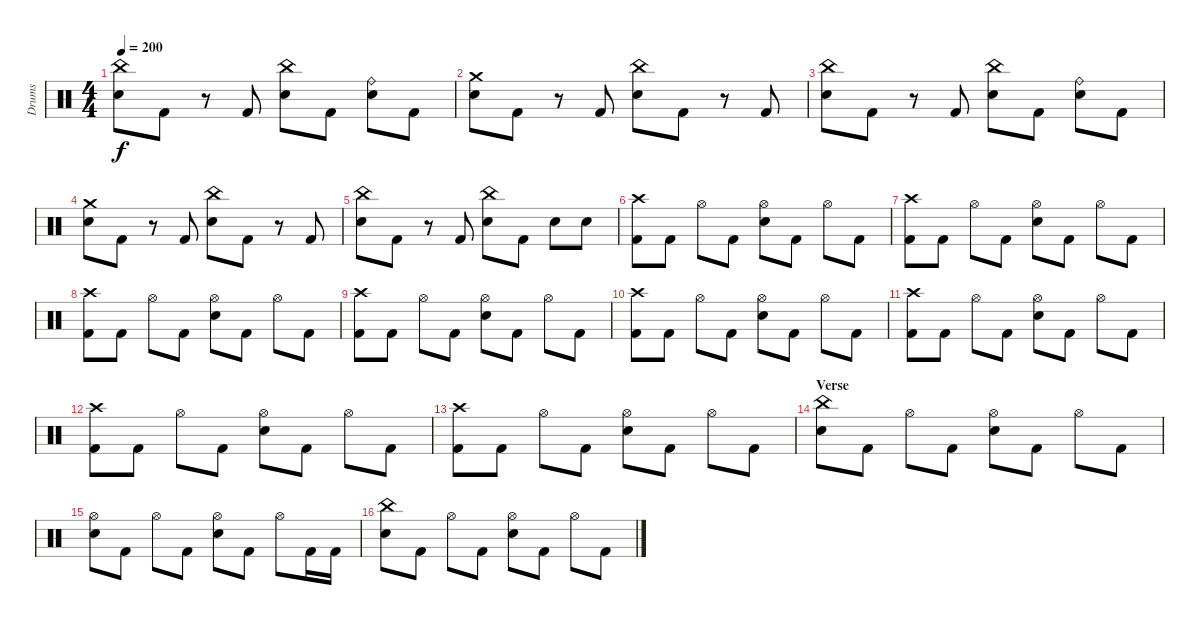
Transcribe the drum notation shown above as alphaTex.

\track ("Drums" "Drums") {instrument percussion}
\staff {score}
\articulation defaults
\ts (4 4)
\tempo 200
\clef neutral
\ks c
("China (hit)" "Electric Snare (hit)").8{dy f} "Kick (hit) 2".8 r.8 "Kick (hit) 2".8 ("China (hit)" "Electric Snare (hit)").8 "Kick (hit) 2".8 ("Ride (bell)" "Electric Snare (hit)").8 "Kick (hit) 2".8 |
("Crash medium (hit)" "Electric Snare (hit)").8 "Kick (hit) 2".8 r.8 "Kick (hit) 2".8 ("China (hit)" "Electric Snare (hit)").8 "Kick (hit) 2".8 r.8 "Kick (hit) 2".8 |
("China (hit)" "Electric Snare (hit)").8 "Kick (hit) 2".8 r.8 "Kick (hit) 2".8 ("China (hit)" "Electric Snare (hit)").8 "Kick (hit) 2".8 ("Ride (bell)" "Electric Snare (hit)").8 "Kick (hit) 2".8 |
("Crash medium (hit)" "Electric Snare (hit)").8 "Kick (hit) 2".8 r.8 "Kick (hit) 2".8 ("China (hit)" "Electric Snare (hit)").8 "Kick (hit) 2".8 r.8 "Kick (hit) 2".8 |
("China (hit)" "Electric Snare (hit)").8 "Kick (hit) 2".8 r.8 "Kick (hit) 2".8 ("China (hit)" "Electric Snare (hit)").8 "Kick (hit) 2".8 "Electric Snare (hit)".8 "Electric Snare (hit)".8 |
("Crash high (hit)" "Kick (hit) 2").8 "Kick (hit) 2".8 "Hi-Hat (open)".8 "Kick (hit) 2".8 ("Hi-Hat (open)" "Electric Snare (hit)").8 "Kick (hit) 2".8 "Hi-Hat (open)".8 "Kick (hit) 2".8 |
("Crash high (hit)" "Kick (hit) 2").8 "Kick (hit) 2".8 "Hi-Hat (open)".8 "Kick (hit) 2".8 ("Hi-Hat (open)" "Electric Snare (hit)").8 "Kick (hit) 2".8 "Hi-Hat (open)".8 "Kick (hit) 2".8 |
("Crash high (hit)" "Kick (hit) 2").8 "Kick (hit) 2".8 "Hi-Hat (open)".8 "Kick (hit) 2".8 ("Hi-Hat (open)" "Electric Snare (hit)").8 "Kick (hit) 2".8 "Hi-Hat (open)".8 "Kick (hit) 2".8 |
("Crash high (hit)" "Kick (hit) 2").8 "Kick (hit) 2".8 "Hi-Hat (open)".8 "Kick (hit) 2".8 ("Hi-Hat (open)" "Electric Snare (hit)").8 "Kick (hit) 2".8 "Hi-Hat (open)".8 "Kick (hit) 2".8 |
("Crash high (hit)" "Kick (hit) 2").8 "Kick (hit) 2".8 "Hi-Hat (open)".8 "Kick (hit) 2".8 ("Hi-Hat (open)" "Electric Snare (hit)").8 "Kick (hit) 2".8 "Hi-Hat (open)".8 "Kick (hit) 2".8 |
("Crash high (hit)" "Kick (hit) 2").8 "Kick (hit) 2".8 "Hi-Hat (open)".8 "Kick (hit) 2".8 ("Hi-Hat (open)" "Electric Snare (hit)").8 "Kick (hit) 2".8 "Hi-Hat (open)".8 "Kick (hit) 2".8 |
("Crash high (hit)" "Kick (hit) 2").8 "Kick (hit) 2".8 "Hi-Hat (open)".8 "Kick (hit) 2".8 ("Hi-Hat (open)" "Electric Snare (hit)").8 "Kick (hit) 2".8 "Hi-Hat (open)".8 "Kick (hit) 2".8 |
("Crash high (hit)" "Kick (hit) 2").8 "Kick (hit) 2".8 "Hi-Hat (open)".8 "Kick (hit) 2".8 ("Hi-Hat (open)" "Electric Snare (hit)").8 "Kick (hit) 2".8 "Hi-Hat (open)".8 "Kick (hit) 2".8 |
\section ("" "Verse")
("China (hit)" "Electric Snare (hit)").8 "Kick (hit) 2".8 "Hi-Hat (open)".8 "Kick (hit) 2".8 ("Hi-Hat (open)" "Electric Snare (hit)").8 "Kick (hit) 2".8 "Hi-Hat (open)".8 "Kick (hit) 2".8 |
("Hi-Hat (open)" "Electric Snare (hit)").8 "Kick (hit) 2".8 "Hi-Hat (open)".8 "Kick (hit) 2".8 ("Hi-Hat (open)" "Electric Snare (hit)").8 "Kick (hit) 2".8 "Hi-Hat (open)".8 "Kick (hit) 2".16 "Kick (hit) 2".16 |
("China (hit)" "Electric Snare (hit)").8 "Kick (hit) 2".8 "Hi-Hat (open)".8 "Kick (hit) 2".8 ("Hi-Hat (open)" "Electric Snare (hit)").8 "Kick (hit) 2".8 "Hi-Hat (open)".8 "Kick (hit) 2".8
